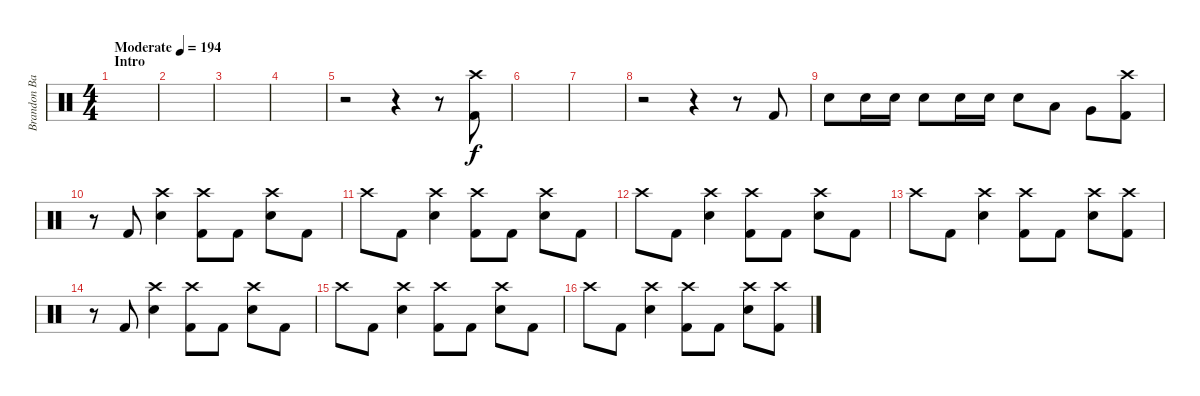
\track ("Brandon Barnes - Drums" "Brandon Ba") {instrument percussion}
\staff {score}
\articulation defaults
\ts (4 4)
\section ("" "Intro")
\tempo (194 "Moderate")
\clef neutral
\ks c
|
|
|
|
r.2 r.4 r.8 ("Crash high (hit)" "Kick (hit) 2").8 |
|
|
r.2 r.4 r.8 "Kick (hit) 2".8 |
"Snare (hit) 2".8 "Snare (hit) 2".16 "Snare (hit) 2".16 "Snare (hit) 2".8 "Snare (hit) 2".16 "Snare (hit) 2".16 "Snare (hit) 2".8 "Low Tom (hit)".8 "Very Low Tom (hit)".8 ("Crash high (hit)" "Kick (hit) 2").8 |
r.8 "Kick (hit) 2".8 ("Snare (hit) 2" "Crash high (hit)").4 ("Kick (hit) 2" "Crash high (hit)").8 "Kick (hit) 2".8 ("Snare (hit) 2" "Crash high (hit)").8 "Kick (hit) 2".8 |
"Crash high (hit)".8 "Kick (hit) 2".8 ("Snare (hit) 2" "Crash high (hit)").4 ("Kick (hit) 2" "Crash high (hit)").8 "Kick (hit) 2".8 ("Snare (hit) 2" "Crash high (hit)").8 "Kick (hit) 2".8 |
"Crash high (hit)".8 "Kick (hit) 2".8 ("Snare (hit) 2" "Crash high (hit)").4 ("Kick (hit) 2" "Crash high (hit)").8 "Kick (hit) 2".8 ("Snare (hit) 2" "Crash high (hit)").8 "Kick (hit) 2".8 |
"Crash high (hit)".8 "Kick (hit) 2".8 ("Snare (hit) 2" "Crash high (hit)").4 ("Kick (hit) 2" "Crash high (hit)").8 "Kick (hit) 2".8 ("Snare (hit) 2" "Crash high (hit)").8 ("Kick (hit) 2" "Crash high (hit)").8 |
r.8 "Kick (hit) 2".8 ("Snare (hit) 2" "Crash high (hit)").4 ("Kick (hit) 2" "Crash high (hit)").8 "Kick (hit) 2".8 ("Snare (hit) 2" "Crash high (hit)").8 "Kick (hit) 2".8 |
"Crash high (hit)".8 "Kick (hit) 2".8 ("Snare (hit) 2" "Crash high (hit)").4 ("Kick (hit) 2" "Crash high (hit)").8 "Kick (hit) 2".8 ("Snare (hit) 2" "Crash high (hit)").8 "Kick (hit) 2".8 |
"Crash high (hit)".8 "Kick (hit) 2".8 ("Snare (hit) 2" "Crash high (hit)").4 ("Kick (hit) 2" "Crash high (hit)").8 "Kick (hit) 2".8 ("Snare (hit) 2" "Crash high (hit)").8 ("Kick (hit) 2" "Crash high (hit)").8
